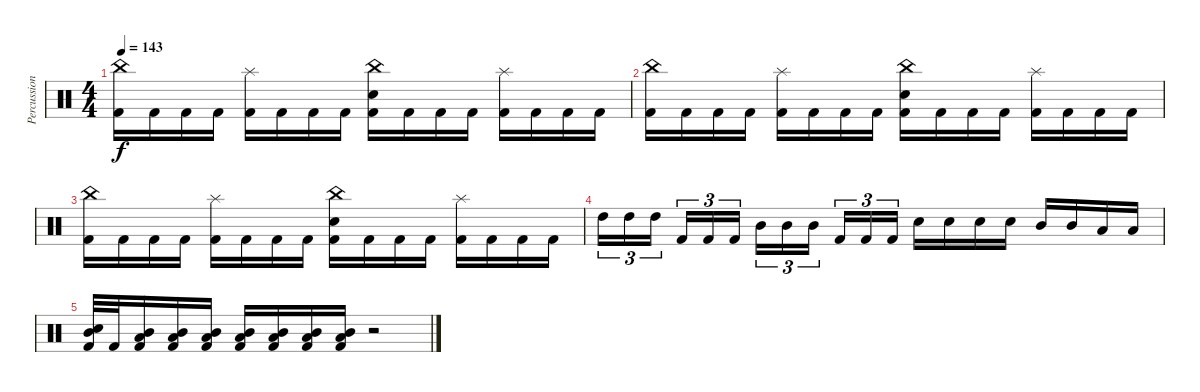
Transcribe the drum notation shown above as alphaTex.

\track ("Percussion" "Percussion") {instrument percussion}
\staff {score}
\articulation defaults
\ts (4 4)
\tempo 143
\clef neutral
\ks c
("China (hit)" "Kick (hit) 2").16{dy f} "Kick (hit) 2".16 "Kick (hit) 2".16 "Kick (hit) 2".16 ("Splash (hit)" "Kick (hit) 2").16 "Kick (hit) 2".16 "Kick (hit) 2".16 "Kick (hit) 2".16 ("China (hit)" "Electric Snare (hit)" "Kick (hit) 2").16 "Kick (hit) 2".16 "Kick (hit) 2".16 "Kick (hit) 2".16 ("Splash (hit)" "Kick (hit) 2").16 "Kick (hit) 2".16 "Kick (hit) 2".16 "Kick (hit) 2".16 |
("China (hit)" "Kick (hit) 2").16 "Kick (hit) 2".16 "Kick (hit) 2".16 "Kick (hit) 2".16 ("Splash (hit)" "Kick (hit) 2").16 "Kick (hit) 2".16 "Kick (hit) 2".16 "Kick (hit) 2".16 ("China (hit)" "Electric Snare (hit)" "Kick (hit) 2").16 "Kick (hit) 2".16 "Kick (hit) 2".16 "Kick (hit) 2".16 ("Splash (hit)" "Kick (hit) 2").16 "Kick (hit) 2".16 "Kick (hit) 2".16 "Kick (hit) 2".16 |
("China (hit)" "Kick (hit) 2").16 "Kick (hit) 2".16 "Kick (hit) 2".16 "Kick (hit) 2".16 ("Splash (hit)" "Kick (hit) 2").16 "Kick (hit) 2".16 "Kick (hit) 2".16 "Kick (hit) 2".16 ("China (hit)" "Electric Snare (hit)" "Kick (hit) 2").16 "Kick (hit) 2".16 "Kick (hit) 2".16 "Kick (hit) 2".16 ("Splash (hit)" "Kick (hit) 2").16 "Kick (hit) 2".16 "Kick (hit) 2".16 "Kick (hit) 2".16 |
"High Tom (hit)".16{tu (3 2)} "High Tom (hit)".16{tu (3 2)} "High Tom (hit)".16{tu (3 2) beam splitsecondary} "Kick (hit) 2".16{tu (3 2)} "Kick (hit) 2".16{tu (3 2)} "Kick (hit) 2".16{tu (3 2)} "Mid Tom (hit)".16{tu (3 2)} "Mid Tom (hit)".16{tu (3 2)} "Mid Tom (hit)".16{tu (3 2) beam splitsecondary} "Kick (hit) 2".16{tu (3 2)} "Kick (hit) 2".16{tu (3 2)} "Kick (hit) 2".16{tu (3 2)} "Electric Snare (hit)".16 "Electric Snare (hit)".16 "Electric Snare (hit)".16 "Electric Snare (hit)".16 "Mid Tom (hit)".16 "Mid Tom (hit)".16 "Low Tom (hit)".16 "Low Tom (hit)".16 |
("Mid Tom (hit)" "Electric Snare (hit)" "Kick (hit) 2").32 "Kick (hit) 2".32 ("Mid Tom (hit)" "Low Tom (hit)" "Kick (hit) 2").16 ("Mid Tom (hit)" "Low Tom (hit)" "Kick (hit) 2").16 ("Mid Tom (hit)" "Low Tom (hit)" "Kick (hit) 2").16 ("Mid Tom (hit)" "Low Tom (hit)" "Kick (hit) 2").16 ("Mid Tom (hit)" "Low Tom (hit)" "Kick (hit) 2").16 ("Mid Tom (hit)" "Low Tom (hit)" "Kick (hit) 2").16 ("Mid Tom (hit)" "Low Tom (hit)" "Kick (hit) 2").16 r.2
